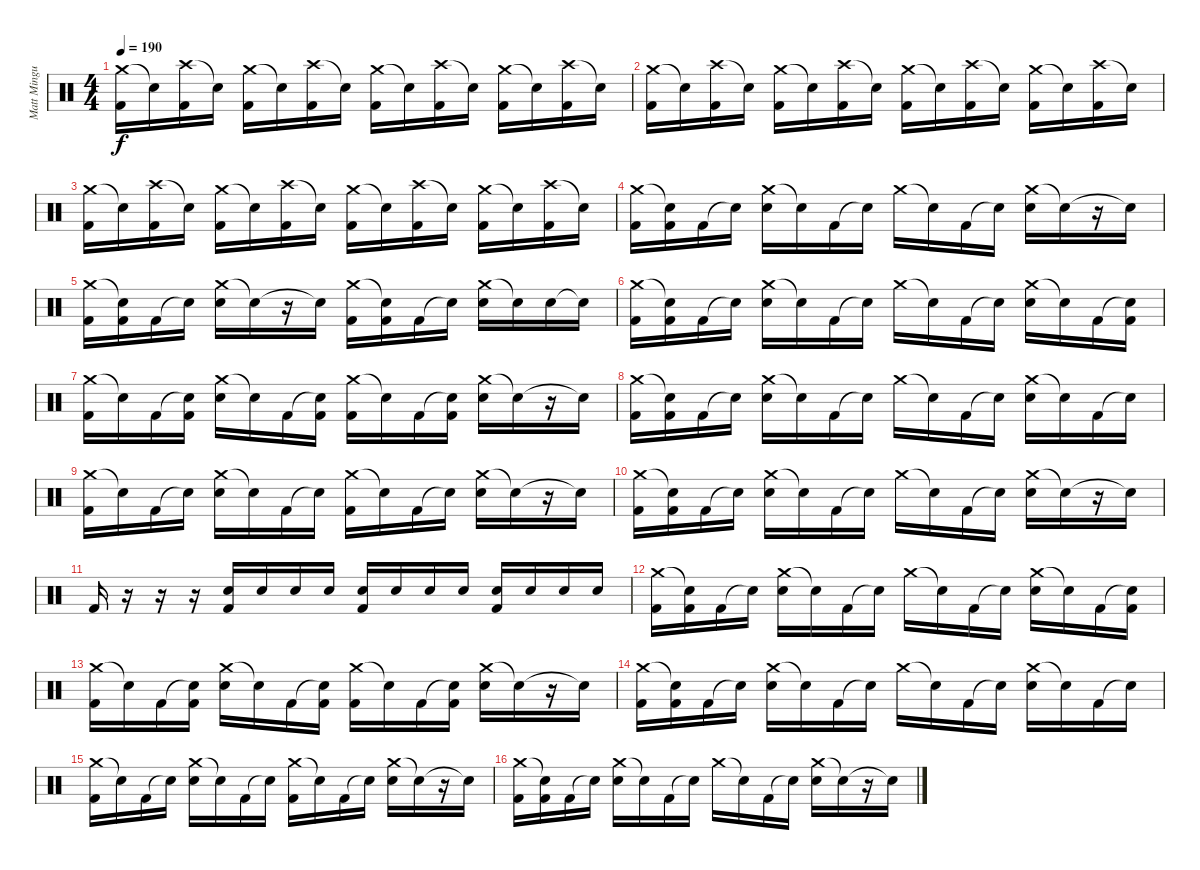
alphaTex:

\track ("Matt Mingus" "Matt Mingu") {instrument percussion}
\staff {score}
\articulation defaults
\ts (4 4)
\tempo 190
\clef neutral
\ks c
("Crash medium (hit)" "Kick (hit) 2").16{dy f} "Snare (hit)"{t}.16 ("Crash high (hit)" "Kick (hit) 2").16 "Snare (hit)"{t}.16 ("Crash medium (hit)" "Kick (hit) 2").16 "Snare (hit)"{t}.16 ("Crash high (hit)" "Kick (hit) 2").16 "Snare (hit)"{t}.16 ("Crash medium (hit)" "Kick (hit) 2").16 "Snare (hit)"{t}.16 ("Crash high (hit)" "Kick (hit) 2").16 "Snare (hit)"{t}.16 ("Crash medium (hit)" "Kick (hit) 2").16 "Snare (hit)"{t}.16 ("Crash high (hit)" "Kick (hit) 2").16 "Snare (hit)"{t}.16 |
("Crash medium (hit)" "Kick (hit) 2").16 "Snare (hit)"{t}.16 ("Crash high (hit)" "Kick (hit) 2").16 "Snare (hit)"{t}.16 ("Crash medium (hit)" "Kick (hit) 2").16 "Snare (hit)"{t}.16 ("Crash high (hit)" "Kick (hit) 2").16 "Snare (hit)"{t}.16 ("Crash medium (hit)" "Kick (hit) 2").16 "Snare (hit)"{t}.16 ("Crash high (hit)" "Kick (hit) 2").16 "Snare (hit)"{t}.16 ("Crash medium (hit)" "Kick (hit) 2").16 "Snare (hit)"{t}.16 ("Crash high (hit)" "Kick (hit) 2").16 "Snare (hit)"{t}.16 |
("Crash medium (hit)" "Kick (hit) 2").16 "Snare (hit)"{t}.16 ("Crash high (hit)" "Kick (hit) 2").16 "Snare (hit)"{t}.16 ("Crash medium (hit)" "Kick (hit) 2").16 "Snare (hit)"{t}.16 ("Crash high (hit)" "Kick (hit) 2").16 "Snare (hit)"{t}.16 ("Crash medium (hit)" "Kick (hit) 2").16 "Snare (hit)"{t}.16 ("Crash high (hit)" "Kick (hit) 2").16 "Snare (hit)"{t}.16 ("Crash medium (hit)" "Kick (hit) 2").16 "Snare (hit)"{t}.16 ("Crash high (hit)" "Kick (hit) 2").16 "Snare (hit)"{t}.16 |
("Crash medium (hit)" "Kick (hit) 2").16 ("Snare (hit)"{t} "Kick (hit) 2").16 "Kick (hit) 2".16 "Snare (hit)"{t}.16 ("Crash medium (hit)" "Electric Snare (hit)").16 "Snare (hit)"{t}.16 "Kick (hit) 2".16 "Snare (hit)"{t}.16 "Crash medium (hit)".16 "Snare (hit)"{t}.16 "Kick (hit) 2".16 "Snare (hit)"{t}.16 ("Crash medium (hit)" "Electric Snare (hit)").16 "Snare (hit)"{t}.16 r.16 "Snare (hit)"{t}.16 |
("Crash medium (hit)" "Kick (hit) 2").16 ("Snare (hit)"{t} "Kick (hit) 2").16 "Kick (hit) 2".16 "Snare (hit)"{t}.16 ("Crash medium (hit)" "Electric Snare (hit)").16 "Snare (hit)"{t}.16 r.16 "Snare (hit)"{t}.16 ("Crash medium (hit)" "Kick (hit) 2").16 ("Snare (hit)"{t} "Kick (hit) 2").16 "Kick (hit) 2".16 "Snare (hit)"{t}.16 ("Crash medium (hit)" "Electric Snare (hit)").16 "Snare (hit)"{t}.16 "Electric Snare (hit)".16 "Snare (hit)"{t}.16 |
("Crash medium (hit)" "Kick (hit) 2").16 ("Snare (hit)"{t} "Kick (hit) 2").16 "Kick (hit) 2".16 "Snare (hit)"{t}.16 ("Crash medium (hit)" "Electric Snare (hit)").16 "Snare (hit)"{t}.16 "Kick (hit) 2".16 "Snare (hit)"{t}.16 "Crash medium (hit)".16 "Snare (hit)"{t}.16 "Kick (hit) 2".16 "Snare (hit)"{t}.16 ("Crash medium (hit)" "Electric Snare (hit)").16 "Snare (hit)"{t}.16 "Kick (hit) 2".16 ("Snare (hit)"{t} "Kick (hit) 2").16 |
("Crash medium (hit)" "Kick (hit) 2").16 "Snare (hit)"{t}.16 "Kick (hit) 2".16 ("Snare (hit)"{t} "Kick (hit) 2").16 ("Crash medium (hit)" "Electric Snare (hit)").16 "Snare (hit)"{t}.16 "Kick (hit) 2".16 ("Snare (hit)"{t} "Kick (hit) 2").16 ("Crash medium (hit)" "Kick (hit) 2").16 "Snare (hit)"{t}.16 "Kick (hit) 2".16 ("Snare (hit)"{t} "Kick (hit) 2").16 ("Crash medium (hit)" "Electric Snare (hit)").16 "Snare (hit)"{t}.16 r.16 "Snare (hit)"{t}.16 |
("Crash medium (hit)" "Kick (hit) 2").16 ("Snare (hit)"{t} "Kick (hit) 2").16 "Kick (hit) 2".16 "Snare (hit)"{t}.16 ("Crash medium (hit)" "Electric Snare (hit)").16 "Snare (hit)"{t}.16 "Kick (hit) 2".16 "Snare (hit)"{t}.16 "Crash medium (hit)".16 "Snare (hit)"{t}.16 "Kick (hit) 2".16 "Snare (hit)"{t}.16 ("Crash medium (hit)" "Electric Snare (hit)").16 "Snare (hit)"{t}.16 "Kick (hit) 2".16 "Snare (hit)"{t}.16 |
("Crash medium (hit)" "Kick (hit) 2").16 "Snare (hit)"{t}.16 "Kick (hit) 2".16 "Snare (hit)"{t}.16 ("Crash medium (hit)" "Electric Snare (hit)").16 "Snare (hit)"{t}.16 "Kick (hit) 2".16 "Snare (hit)"{t}.16 ("Crash medium (hit)" "Kick (hit) 2").16 "Snare (hit)"{t}.16 "Kick (hit) 2".16 "Snare (hit)"{t}.16 ("Crash medium (hit)" "Electric Snare (hit)").16 "Snare (hit)"{t}.16 r.16 "Snare (hit)"{t}.16 |
("Crash medium (hit)" "Kick (hit) 2").16 ("Snare (hit)"{t} "Kick (hit) 2").16 "Kick (hit) 2".16 "Snare (hit)"{t}.16 ("Crash medium (hit)" "Electric Snare (hit)").16 "Snare (hit)"{t}.16 "Kick (hit) 2".16 "Snare (hit)"{t}.16 "Crash medium (hit)".16 "Snare (hit)"{t}.16 "Kick (hit) 2".16 "Snare (hit)"{t}.16 ("Crash medium (hit)" "Electric Snare (hit)").16 "Snare (hit)"{t}.16 r.16 "Snare (hit)"{t}.16 |
"Kick (hit) 2".16 r.16 r.16 r.16 ("Electric Snare (hit)" "Kick (hit) 2").16 "Electric Snare (hit)".16 "Electric Snare (hit)".16 "Electric Snare (hit)".16 ("Electric Snare (hit)" "Kick (hit) 2").16 "Electric Snare (hit)".16 "Electric Snare (hit)".16 "Electric Snare (hit)".16 ("Electric Snare (hit)" "Kick (hit) 2").16 "Electric Snare (hit)".16 "Electric Snare (hit)".16 "Electric Snare (hit)".16 |
("Crash medium (hit)" "Kick (hit) 2").16 ("Snare (hit)"{t} "Kick (hit) 2").16 "Kick (hit) 2".16 "Snare (hit)"{t}.16 ("Crash medium (hit)" "Electric Snare (hit)").16 "Snare (hit)"{t}.16 "Kick (hit) 2".16 "Snare (hit)"{t}.16 "Crash medium (hit)".16 "Snare (hit)"{t}.16 "Kick (hit) 2".16 "Snare (hit)"{t}.16 ("Crash medium (hit)" "Electric Snare (hit)").16 "Snare (hit)"{t}.16 "Kick (hit) 2".16 ("Snare (hit)"{t} "Kick (hit) 2").16 |
("Crash medium (hit)" "Kick (hit) 2").16 "Snare (hit)"{t}.16 "Kick (hit) 2".16 ("Snare (hit)"{t} "Kick (hit) 2").16 ("Crash medium (hit)" "Electric Snare (hit)").16 "Snare (hit)"{t}.16 "Kick (hit) 2".16 ("Snare (hit)"{t} "Kick (hit) 2").16 ("Crash medium (hit)" "Kick (hit) 2").16 "Snare (hit)"{t}.16 "Kick (hit) 2".16 ("Snare (hit)"{t} "Kick (hit) 2").16 ("Crash medium (hit)" "Electric Snare (hit)").16 "Snare (hit)"{t}.16 r.16 "Snare (hit)"{t}.16 |
("Crash medium (hit)" "Kick (hit) 2").16 ("Snare (hit)"{t} "Kick (hit) 2").16 "Kick (hit) 2".16 "Snare (hit)"{t}.16 ("Crash medium (hit)" "Electric Snare (hit)").16 "Snare (hit)"{t}.16 "Kick (hit) 2".16 "Snare (hit)"{t}.16 "Crash medium (hit)".16 "Snare (hit)"{t}.16 "Kick (hit) 2".16 "Snare (hit)"{t}.16 ("Crash medium (hit)" "Electric Snare (hit)").16 "Snare (hit)"{t}.16 "Kick (hit) 2".16 "Snare (hit)"{t}.16 |
("Crash medium (hit)" "Kick (hit) 2").16 "Snare (hit)"{t}.16 "Kick (hit) 2".16 "Snare (hit)"{t}.16 ("Crash medium (hit)" "Electric Snare (hit)").16 "Snare (hit)"{t}.16 "Kick (hit) 2".16 "Snare (hit)"{t}.16 ("Crash medium (hit)" "Kick (hit) 2").16 "Snare (hit)"{t}.16 "Kick (hit) 2".16 "Snare (hit)"{t}.16 ("Crash medium (hit)" "Electric Snare (hit)").16 "Snare (hit)"{t}.16 r.16 "Snare (hit)"{t}.16 |
("Crash medium (hit)" "Kick (hit) 2").16 ("Snare (hit)"{t} "Kick (hit) 2").16 "Kick (hit) 2".16 "Snare (hit)"{t}.16 ("Crash medium (hit)" "Electric Snare (hit)").16 "Snare (hit)"{t}.16 "Kick (hit) 2".16 "Snare (hit)"{t}.16 "Crash medium (hit)".16 "Snare (hit)"{t}.16 "Kick (hit) 2".16 "Snare (hit)"{t}.16 ("Crash medium (hit)" "Electric Snare (hit)").16 "Snare (hit)"{t}.16 r.16 "Snare (hit)"{t}.16
